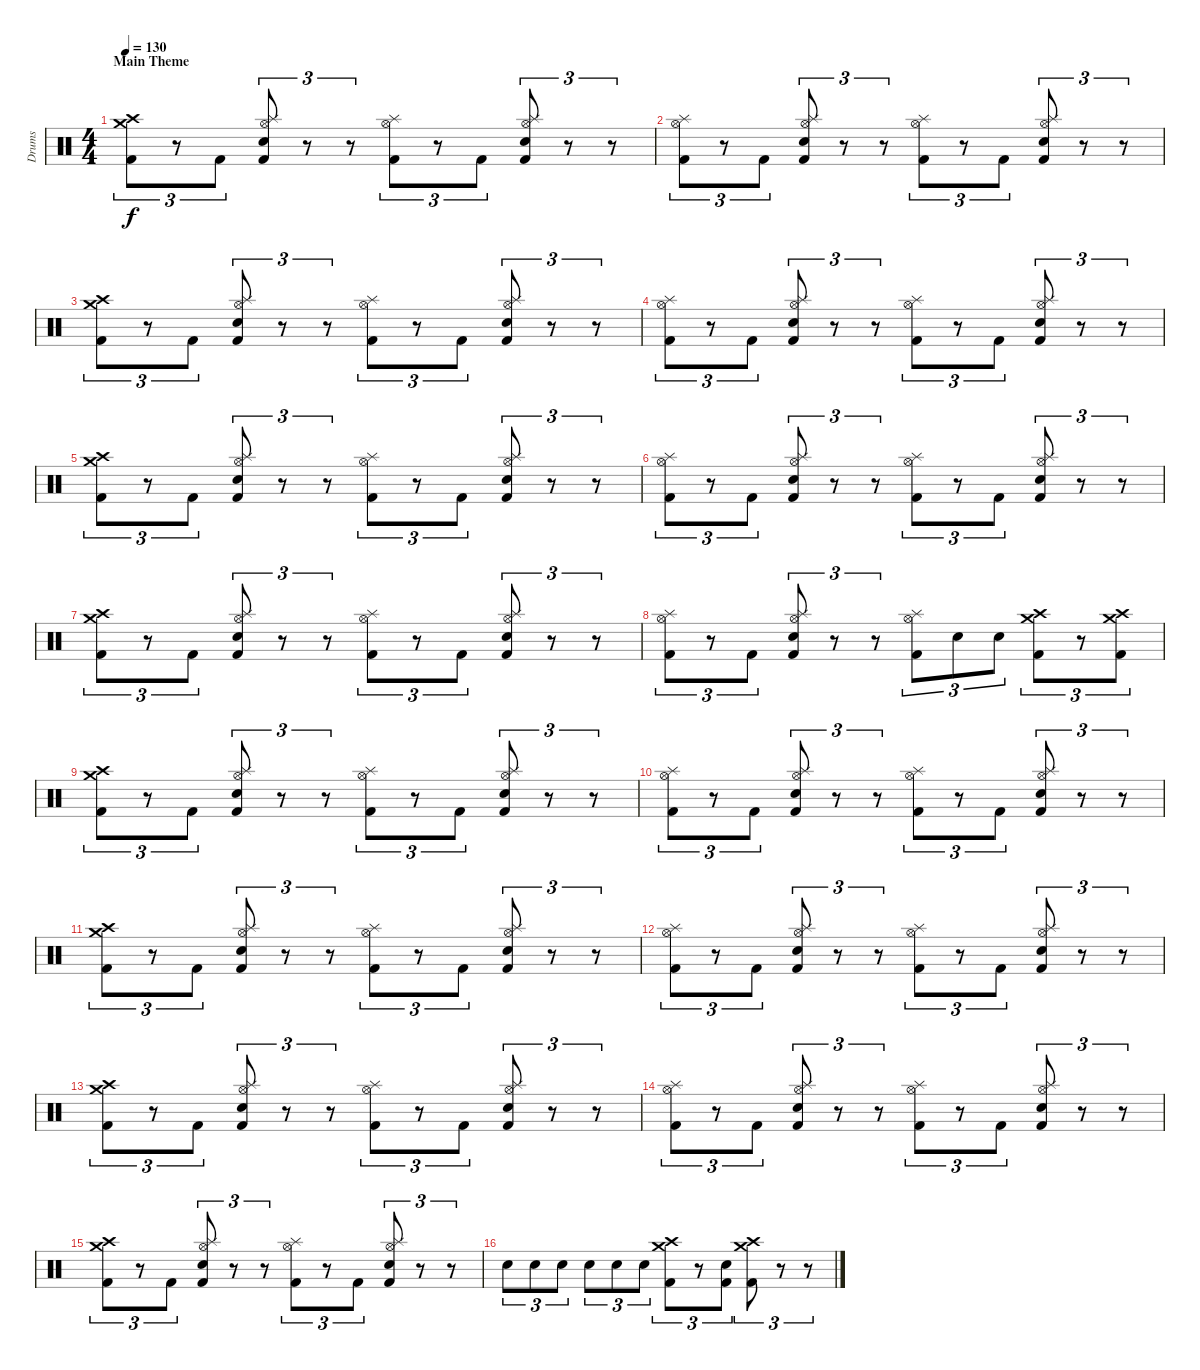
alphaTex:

\track ("Drums" "Drums") {instrument percussion}
\staff {score}
\articulation defaults
\ts (4 4)
\section ("" "Main Theme")
\tempo 130
\clef neutral
\ks c
("Crash medium (hit)" "Crash high (hit)" "Kick (hit) 2").8{tu (3 2) dy f} r.8{tu (3 2)} "Kick (hit) 2".8{tu (3 2)} ("Hi-Hat (open)" "Splash (hit)" "Snare (hit) 2" "Kick (hit) 2").8{tu (3 2)} r.8{tu (3 2)} r.8{tu (3 2)} ("Hi-Hat (open)" "Splash (hit)" "Kick (hit) 2").8{tu (3 2)} r.8{tu (3 2)} "Kick (hit) 2".8{tu (3 2)} ("Hi-Hat (open)" "Splash (hit)" "Snare (hit) 2" "Kick (hit) 2").8{tu (3 2)} r.8{tu (3 2)} r.8{tu (3 2)} |
("Hi-Hat (open)" "Splash (hit)" "Kick (hit) 2").8{tu (3 2)} r.8{tu (3 2)} "Kick (hit) 2".8{tu (3 2)} ("Hi-Hat (open)" "Splash (hit)" "Snare (hit) 2" "Kick (hit) 2").8{tu (3 2)} r.8{tu (3 2)} r.8{tu (3 2)} ("Hi-Hat (open)" "Splash (hit)" "Kick (hit) 2").8{tu (3 2)} r.8{tu (3 2)} "Kick (hit) 2".8{tu (3 2)} ("Hi-Hat (open)" "Splash (hit)" "Snare (hit) 2" "Kick (hit) 2").8{tu (3 2)} r.8{tu (3 2)} r.8{tu (3 2)} |
("Crash medium (hit)" "Crash high (hit)" "Kick (hit) 2").8{tu (3 2)} r.8{tu (3 2)} "Kick (hit) 2".8{tu (3 2)} ("Hi-Hat (open)" "Splash (hit)" "Snare (hit) 2" "Kick (hit) 2").8{tu (3 2)} r.8{tu (3 2)} r.8{tu (3 2)} ("Hi-Hat (open)" "Splash (hit)" "Kick (hit) 2").8{tu (3 2)} r.8{tu (3 2)} "Kick (hit) 2".8{tu (3 2)} ("Hi-Hat (open)" "Splash (hit)" "Snare (hit) 2" "Kick (hit) 2").8{tu (3 2)} r.8{tu (3 2)} r.8{tu (3 2)} |
("Hi-Hat (open)" "Splash (hit)" "Kick (hit) 2").8{tu (3 2)} r.8{tu (3 2)} "Kick (hit) 2".8{tu (3 2)} ("Hi-Hat (open)" "Splash (hit)" "Snare (hit) 2" "Kick (hit) 2").8{tu (3 2)} r.8{tu (3 2)} r.8{tu (3 2)} ("Hi-Hat (open)" "Splash (hit)" "Kick (hit) 2").8{tu (3 2)} r.8{tu (3 2)} "Kick (hit) 2".8{tu (3 2)} ("Hi-Hat (open)" "Splash (hit)" "Snare (hit) 2" "Kick (hit) 2").8{tu (3 2)} r.8{tu (3 2)} r.8{tu (3 2)} |
("Crash medium (hit)" "Crash high (hit)" "Kick (hit) 2").8{tu (3 2)} r.8{tu (3 2)} "Kick (hit) 2".8{tu (3 2)} ("Hi-Hat (open)" "Splash (hit)" "Snare (hit) 2" "Kick (hit) 2").8{tu (3 2)} r.8{tu (3 2)} r.8{tu (3 2)} ("Hi-Hat (open)" "Splash (hit)" "Kick (hit) 2").8{tu (3 2)} r.8{tu (3 2)} "Kick (hit) 2".8{tu (3 2)} ("Hi-Hat (open)" "Splash (hit)" "Snare (hit) 2" "Kick (hit) 2").8{tu (3 2)} r.8{tu (3 2)} r.8{tu (3 2)} |
("Hi-Hat (open)" "Splash (hit)" "Kick (hit) 2").8{tu (3 2)} r.8{tu (3 2)} "Kick (hit) 2".8{tu (3 2)} ("Hi-Hat (open)" "Splash (hit)" "Snare (hit) 2" "Kick (hit) 2").8{tu (3 2)} r.8{tu (3 2)} r.8{tu (3 2)} ("Hi-Hat (open)" "Splash (hit)" "Kick (hit) 2").8{tu (3 2)} r.8{tu (3 2)} "Kick (hit) 2".8{tu (3 2)} ("Hi-Hat (open)" "Splash (hit)" "Snare (hit) 2" "Kick (hit) 2").8{tu (3 2)} r.8{tu (3 2)} r.8{tu (3 2)} |
("Crash medium (hit)" "Crash high (hit)" "Kick (hit) 2").8{tu (3 2)} r.8{tu (3 2)} "Kick (hit) 2".8{tu (3 2)} ("Hi-Hat (open)" "Splash (hit)" "Snare (hit) 2" "Kick (hit) 2").8{tu (3 2)} r.8{tu (3 2)} r.8{tu (3 2)} ("Hi-Hat (open)" "Splash (hit)" "Kick (hit) 2").8{tu (3 2)} r.8{tu (3 2)} "Kick (hit) 2".8{tu (3 2)} ("Hi-Hat (open)" "Splash (hit)" "Snare (hit) 2" "Kick (hit) 2").8{tu (3 2)} r.8{tu (3 2)} r.8{tu (3 2)} |
("Hi-Hat (open)" "Splash (hit)" "Kick (hit) 2").8{tu (3 2)} r.8{tu (3 2)} "Kick (hit) 2".8{tu (3 2)} ("Hi-Hat (open)" "Splash (hit)" "Snare (hit) 2" "Kick (hit) 2").8{tu (3 2)} r.8{tu (3 2)} r.8{tu (3 2)} ("Hi-Hat (open)" "Splash (hit)" "Kick (hit) 2").8{tu (3 2)} "Snare (hit) 2".8{tu (3 2)} "Snare (hit) 2".8{tu (3 2)} ("Crash high (hit)" "Crash medium (hit)" "Kick (hit) 2").8{tu (3 2)} r.8{tu (3 2)} ("Crash high (hit)" "Crash medium (hit)" "Kick (hit) 2").8{tu (3 2)} |
("Crash medium (hit)" "Crash high (hit)" "Kick (hit) 2").8{tu (3 2)} r.8{tu (3 2)} "Kick (hit) 2".8{tu (3 2)} ("Hi-Hat (open)" "Splash (hit)" "Snare (hit) 2" "Kick (hit) 2").8{tu (3 2)} r.8{tu (3 2)} r.8{tu (3 2)} ("Hi-Hat (open)" "Splash (hit)" "Kick (hit) 2").8{tu (3 2)} r.8{tu (3 2)} "Kick (hit) 2".8{tu (3 2)} ("Hi-Hat (open)" "Splash (hit)" "Snare (hit) 2" "Kick (hit) 2").8{tu (3 2)} r.8{tu (3 2)} r.8{tu (3 2)} |
("Hi-Hat (open)" "Splash (hit)" "Kick (hit) 2").8{tu (3 2)} r.8{tu (3 2)} "Kick (hit) 2".8{tu (3 2)} ("Hi-Hat (open)" "Splash (hit)" "Snare (hit) 2" "Kick (hit) 2").8{tu (3 2)} r.8{tu (3 2)} r.8{tu (3 2)} ("Hi-Hat (open)" "Splash (hit)" "Kick (hit) 2").8{tu (3 2)} r.8{tu (3 2)} "Kick (hit) 2".8{tu (3 2)} ("Hi-Hat (open)" "Splash (hit)" "Snare (hit) 2" "Kick (hit) 2").8{tu (3 2)} r.8{tu (3 2)} r.8{tu (3 2)} |
("Crash medium (hit)" "Crash high (hit)" "Kick (hit) 2").8{tu (3 2)} r.8{tu (3 2)} "Kick (hit) 2".8{tu (3 2)} ("Hi-Hat (open)" "Splash (hit)" "Snare (hit) 2" "Kick (hit) 2").8{tu (3 2)} r.8{tu (3 2)} r.8{tu (3 2)} ("Hi-Hat (open)" "Splash (hit)" "Kick (hit) 2").8{tu (3 2)} r.8{tu (3 2)} "Kick (hit) 2".8{tu (3 2)} ("Hi-Hat (open)" "Splash (hit)" "Snare (hit) 2" "Kick (hit) 2").8{tu (3 2)} r.8{tu (3 2)} r.8{tu (3 2)} |
("Hi-Hat (open)" "Splash (hit)" "Kick (hit) 2").8{tu (3 2)} r.8{tu (3 2)} "Kick (hit) 2".8{tu (3 2)} ("Hi-Hat (open)" "Splash (hit)" "Snare (hit) 2" "Kick (hit) 2").8{tu (3 2)} r.8{tu (3 2)} r.8{tu (3 2)} ("Hi-Hat (open)" "Splash (hit)" "Kick (hit) 2").8{tu (3 2)} r.8{tu (3 2)} "Kick (hit) 2".8{tu (3 2)} ("Hi-Hat (open)" "Splash (hit)" "Snare (hit) 2" "Kick (hit) 2").8{tu (3 2)} r.8{tu (3 2)} r.8{tu (3 2)} |
("Crash medium (hit)" "Crash high (hit)" "Kick (hit) 2").8{tu (3 2)} r.8{tu (3 2)} "Kick (hit) 2".8{tu (3 2)} ("Hi-Hat (open)" "Splash (hit)" "Snare (hit) 2" "Kick (hit) 2").8{tu (3 2)} r.8{tu (3 2)} r.8{tu (3 2)} ("Hi-Hat (open)" "Splash (hit)" "Kick (hit) 2").8{tu (3 2)} r.8{tu (3 2)} "Kick (hit) 2".8{tu (3 2)} ("Hi-Hat (open)" "Splash (hit)" "Snare (hit) 2" "Kick (hit) 2").8{tu (3 2)} r.8{tu (3 2)} r.8{tu (3 2)} |
("Hi-Hat (open)" "Splash (hit)" "Kick (hit) 2").8{tu (3 2)} r.8{tu (3 2)} "Kick (hit) 2".8{tu (3 2)} ("Hi-Hat (open)" "Splash (hit)" "Snare (hit) 2" "Kick (hit) 2").8{tu (3 2)} r.8{tu (3 2)} r.8{tu (3 2)} ("Hi-Hat (open)" "Splash (hit)" "Kick (hit) 2").8{tu (3 2)} r.8{tu (3 2)} "Kick (hit) 2".8{tu (3 2)} ("Hi-Hat (open)" "Splash (hit)" "Snare (hit) 2" "Kick (hit) 2").8{tu (3 2)} r.8{tu (3 2)} r.8{tu (3 2)} |
("Crash medium (hit)" "Crash high (hit)" "Kick (hit) 2").8{tu (3 2)} r.8{tu (3 2)} "Kick (hit) 2".8{tu (3 2)} ("Hi-Hat (open)" "Splash (hit)" "Snare (hit) 2" "Kick (hit) 2").8{tu (3 2)} r.8{tu (3 2)} r.8{tu (3 2)} ("Hi-Hat (open)" "Splash (hit)" "Kick (hit) 2").8{tu (3 2)} r.8{tu (3 2)} "Kick (hit) 2".8{tu (3 2)} ("Hi-Hat (open)" "Splash (hit)" "Snare (hit) 2" "Kick (hit) 2").8{tu (3 2)} r.8{tu (3 2)} r.8{tu (3 2)} |
"Snare (hit) 2".8{tu (3 2)} "Snare (hit) 2".8{tu (3 2)} "Snare (hit) 2".8{tu (3 2)} "Snare (hit) 2".8{tu (3 2)} "Snare (hit) 2".8{tu (3 2)} "Snare (hit) 2".8{tu (3 2)} ("Crash medium (hit)" "Crash high (hit)" "Kick (hit) 2").8{tu (3 2)} r.8{tu (3 2)} ("Snare (hit) 2" "Kick (hit) 2").8{tu (3 2)} ("Crash high (hit)" "Crash medium (hit)" "Kick (hit) 2").8{tu (3 2)} r.8{tu (3 2)} r.8{tu (3 2)}
